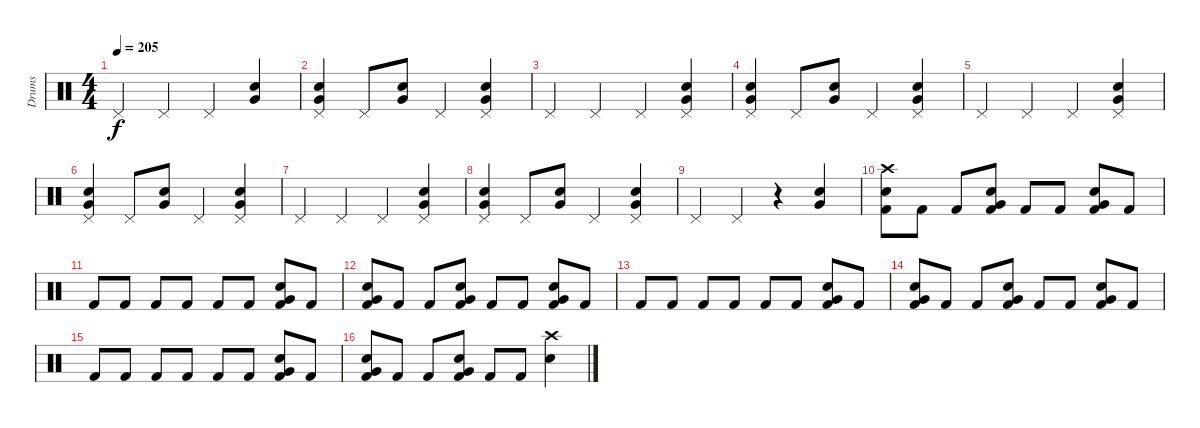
\track ("Drums" "Drums") {instrument percussion}
\staff {score}
\articulation defaults
\ts (4 4)
\tempo 205
\clef neutral
\ks c "Pedal Hi-Hat (hit)".4{dy f} "Pedal Hi-Hat (hit)".4 "Pedal Hi-Hat (hit)".4
("Very Low Tom (hit)" "Snare (hit) 2").4 |
("Pedal Hi-Hat (hit)" "Very Low Tom (hit)" "Snare (hit) 2").4 "Pedal Hi-Hat (hit)".8 ("Very Low Tom (hit)" "Snare (hit) 2").8 "Pedal Hi-Hat (hit)".4 ("Pedal Hi-Hat (hit)" "Very Low Tom (hit)" "Snare (hit) 2").4 |
"Pedal Hi-Hat (hit)".4 "Pedal Hi-Hat (hit)".4 "Pedal Hi-Hat (hit)".4 ("Pedal Hi-Hat (hit)" "Very Low Tom (hit)" "Snare (hit) 2").4 |
("Pedal Hi-Hat (hit)" "Very Low Tom (hit)" "Snare (hit) 2").4 "Pedal Hi-Hat (hit)".8 ("Very Low Tom (hit)" "Snare (hit) 2").8 "Pedal Hi-Hat (hit)".4 ("Pedal Hi-Hat (hit)" "Very Low Tom (hit)" "Snare (hit) 2").4 |
"Pedal Hi-Hat (hit)".4 "Pedal Hi-Hat (hit)".4 "Pedal Hi-Hat (hit)".4 ("Pedal Hi-Hat (hit)" "Very Low Tom (hit)" "Snare (hit) 2").4 |
("Pedal Hi-Hat (hit)" "Very Low Tom (hit)" "Snare (hit) 2").4 "Pedal Hi-Hat (hit)".8 ("Very Low Tom (hit)" "Snare (hit) 2").8 "Pedal Hi-Hat (hit)".4 ("Pedal Hi-Hat (hit)" "Very Low Tom (hit)" "Snare (hit) 2").4 |
"Pedal Hi-Hat (hit)".4 "Pedal Hi-Hat (hit)".4 "Pedal Hi-Hat (hit)".4 ("Pedal Hi-Hat (hit)" "Very Low Tom (hit)" "Snare (hit) 2").4 |
("Pedal Hi-Hat (hit)" "Very Low Tom (hit)" "Snare (hit) 2").4 "Pedal Hi-Hat (hit)".8 ("Very Low Tom (hit)" "Snare (hit) 2").8 "Pedal Hi-Hat (hit)".4 ("Pedal Hi-Hat (hit)" "Very Low Tom (hit)" "Snare (hit) 2").4 |
"Pedal Hi-Hat (hit)".4 "Pedal Hi-Hat (hit)".4 r.4 ("Very Low Tom (hit)" "Snare (hit) 2").4 |
("Kick (hit) 2" "Snare (hit) 2" "Crash high (hit)").8 "Kick (hit) 2".8 "Kick (hit) 2".8 ("Kick (hit) 2" "Very Low Tom (hit)" "Snare (hit) 2").8 "Kick (hit) 2".8 "Kick (hit) 2".8 ("Kick (hit) 2" "Very Low Tom (hit)" "Snare (hit) 2").8 "Kick (hit) 2".8 |
"Kick (hit) 2".8 "Kick (hit) 2".8 "Kick (hit) 2".8 "Kick (hit) 2".8 "Kick (hit) 2".8 "Kick (hit) 2".8 ("Kick (hit) 2" "Very Low Tom (hit)" "Snare (hit) 2").8 "Kick (hit) 2".8 |
("Kick (hit) 2" "Very Low Tom (hit)" "Snare (hit) 2").8 "Kick (hit) 2".8 "Kick (hit) 2".8 ("Kick (hit) 2" "Very Low Tom (hit)" "Snare (hit) 2").8 "Kick (hit) 2".8 "Kick (hit) 2".8 ("Kick (hit) 2" "Very Low Tom (hit)" "Snare (hit) 2").8 "Kick (hit) 2".8 |
"Kick (hit) 2".8 "Kick (hit) 2".8 "Kick (hit) 2".8 "Kick (hit) 2".8 "Kick (hit) 2".8 "Kick (hit) 2".8 ("Kick (hit) 2" "Very Low Tom (hit)" "Snare (hit) 2").8 "Kick (hit) 2".8 |
("Kick (hit) 2" "Very Low Tom (hit)" "Snare (hit) 2").8 "Kick (hit) 2".8 "Kick (hit) 2".8 ("Kick (hit) 2" "Very Low Tom (hit)" "Snare (hit) 2").8 "Kick (hit) 2".8 "Kick (hit) 2".8 ("Kick (hit) 2" "Very Low Tom (hit)" "Snare (hit) 2").8 "Kick (hit) 2".8 |
"Kick (hit) 2".8 "Kick (hit) 2".8 "Kick (hit) 2".8 "Kick (hit) 2".8 "Kick (hit) 2".8 "Kick (hit) 2".8 ("Kick (hit) 2" "Very Low Tom (hit)" "Snare (hit) 2").8 "Kick (hit) 2".8 |
("Kick (hit) 2" "Very Low Tom (hit)" "Snare (hit) 2").8 "Kick (hit) 2".8 "Kick (hit) 2".8 ("Kick (hit) 2" "Very Low Tom (hit)" "Snare (hit) 2").8 "Kick (hit) 2".8 "Kick (hit) 2".8 ("Snare (hit) 2" "Crash high (hit)").4
